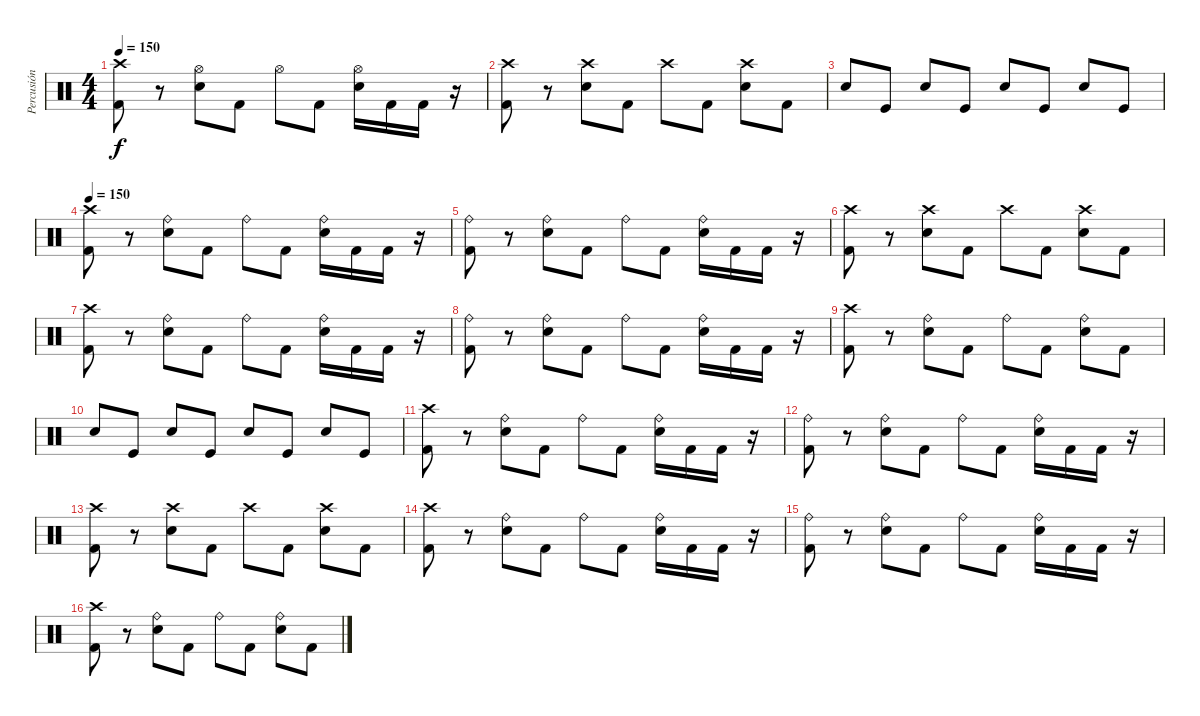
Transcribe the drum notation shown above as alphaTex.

\track ("Percusión" "Percusión") {instrument percussion}
\staff {score}
\articulation defaults
\ts (4 4)
\tempo 150
\clef neutral
\ks c
("Crash high (hit)" "Kick (hit) 2").8{dy f} r.8 ("Hi-Hat (open)" "Electric Snare (hit)").8 "Kick (hit) 2".8 "Hi-Hat (open)".8 "Kick (hit) 2".8 ("Hi-Hat (open)" "Electric Snare (hit)").16 "Kick (hit) 2".16 "Kick (hit) 2".16 r.16 |
("Crash high (hit)" "Kick (hit) 2").8 r.8 ("Crash high (hit)" "Electric Snare (hit)").8 "Kick (hit) 2".8 "Crash high (hit)".8 "Kick (hit) 2".8 ("Crash high (hit)" "Electric Snare (hit)").8 "Kick (hit) 2".8 |
"Electric Snare (hit)".8 "Kick (hit)".8 "Electric Snare (hit)".8 "Kick (hit)".8 "Electric Snare (hit)".8 "Kick (hit)".8 "Electric Snare (hit)".8 "Kick (hit)".8 |
\tempo 150
("Crash high (hit)" "Kick (hit) 2").8 r.8 ("Ride (bell)" "Electric Snare (hit)").8 "Kick (hit) 2".8 "Ride (bell)".8 "Kick (hit) 2".8 ("Ride (bell)" "Electric Snare (hit)").16 "Kick (hit) 2".16 "Kick (hit) 2".16 r.16 |
("Ride (bell)" "Kick (hit) 2").8 r.8 ("Ride (bell)" "Electric Snare (hit)").8 "Kick (hit) 2".8 "Ride (bell)".8 "Kick (hit) 2".8 ("Ride (bell)" "Electric Snare (hit)").16 "Kick (hit) 2".16 "Kick (hit) 2".16 r.16 |
("Crash high (hit)" "Kick (hit) 2").8 r.8 ("Crash high (hit)" "Electric Snare (hit)").8 "Kick (hit) 2".8 "Crash high (hit)".8 "Kick (hit) 2".8 ("Crash high (hit)" "Electric Snare (hit)").8 "Kick (hit) 2".8 |
("Crash high (hit)" "Kick (hit) 2").8 r.8 ("Ride (bell)" "Electric Snare (hit)").8 "Kick (hit) 2".8 "Ride (bell)".8 "Kick (hit) 2".8 ("Ride (bell)" "Electric Snare (hit)").16 "Kick (hit) 2".16 "Kick (hit) 2".16 r.16 |
("Ride (bell)" "Kick (hit) 2").8 r.8 ("Ride (bell)" "Electric Snare (hit)").8 "Kick (hit) 2".8 "Ride (bell)".8 "Kick (hit) 2".8 ("Ride (bell)" "Electric Snare (hit)").16 "Kick (hit) 2".16 "Kick (hit) 2".16 r.16 |
("Crash high (hit)" "Kick (hit) 2").8 r.8 ("Ride (bell)" "Electric Snare (hit)").8 "Kick (hit) 2".8 "Ride (bell)".8 "Kick (hit) 2".8 ("Ride (bell)" "Electric Snare (hit)").8 "Kick (hit) 2".8 |
"Electric Snare (hit)".8 "Kick (hit)".8 "Electric Snare (hit)".8 "Kick (hit)".8 "Electric Snare (hit)".8 "Kick (hit)".8 "Electric Snare (hit)".8 "Kick (hit)".8 |
("Crash high (hit)" "Kick (hit) 2").8 r.8 ("Ride (bell)" "Electric Snare (hit)").8 "Kick (hit) 2".8 "Ride (bell)".8 "Kick (hit) 2".8 ("Ride (bell)" "Electric Snare (hit)").16 "Kick (hit) 2".16 "Kick (hit) 2".16 r.16 |
("Ride (bell)" "Kick (hit) 2").8 r.8 ("Ride (bell)" "Electric Snare (hit)").8 "Kick (hit) 2".8 "Ride (bell)".8 "Kick (hit) 2".8 ("Ride (bell)" "Electric Snare (hit)").16 "Kick (hit) 2".16 "Kick (hit) 2".16 r.16 |
("Crash high (hit)" "Kick (hit) 2").8 r.8 ("Crash high (hit)" "Electric Snare (hit)").8 "Kick (hit) 2".8 "Crash high (hit)".8 "Kick (hit) 2".8 ("Crash high (hit)" "Electric Snare (hit)").8 "Kick (hit) 2".8 |
("Crash high (hit)" "Kick (hit) 2").8 r.8 ("Ride (bell)" "Electric Snare (hit)").8 "Kick (hit) 2".8 "Ride (bell)".8 "Kick (hit) 2".8 ("Ride (bell)" "Electric Snare (hit)").16 "Kick (hit) 2".16 "Kick (hit) 2".16 r.16 |
("Ride (bell)" "Kick (hit) 2").8 r.8 ("Ride (bell)" "Electric Snare (hit)").8 "Kick (hit) 2".8 "Ride (bell)".8 "Kick (hit) 2".8 ("Ride (bell)" "Electric Snare (hit)").16 "Kick (hit) 2".16 "Kick (hit) 2".16 r.16 |
("Crash high (hit)" "Kick (hit) 2").8 r.8 ("Ride (bell)" "Electric Snare (hit)").8 "Kick (hit) 2".8 "Ride (bell)".8 "Kick (hit) 2".8 ("Ride (bell)" "Electric Snare (hit)").8 "Kick (hit) 2".8
